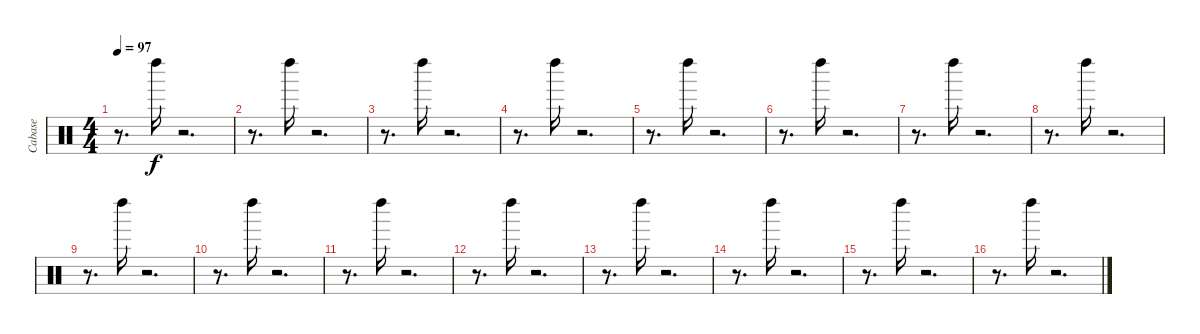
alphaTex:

\track ("Cabase" "Cabase") {instrument percussion}
\staff {score}
\articulation defaults
\ts (4 4)
\tempo 97
\clef neutral
\ks c
r.8{d dy f} "Left Maraca (hit)".16 r.2{d} |
r.8{d} "Left Maraca (hit)".16 r.2{d} |
r.8{d} "Left Maraca (hit)".16 r.2{d} |
r.8{d} "Left Maraca (hit)".16 r.2{d} |
r.8{d} "Left Maraca (hit)".16 r.2{d} |
r.8{d} "Left Maraca (hit)".16 r.2{d} |
r.8{d} "Left Maraca (hit)".16 r.2{d} |
r.8{d} "Left Maraca (hit)".16 r.2{d} |
r.8{d} "Left Maraca (hit)".16 r.2{d} |
r.8{d} "Left Maraca (hit)".16 r.2{d} |
r.8{d} "Left Maraca (hit)".16 r.2{d} |
r.8{d} "Left Maraca (hit)".16 r.2{d} |
r.8{d} "Left Maraca (hit)".16 r.2{d} |
r.8{d} "Left Maraca (hit)".16 r.2{d} |
r.8{d} "Left Maraca (hit)".16 r.2{d} |
r.8{d} "Left Maraca (hit)".16 r.2{d}
